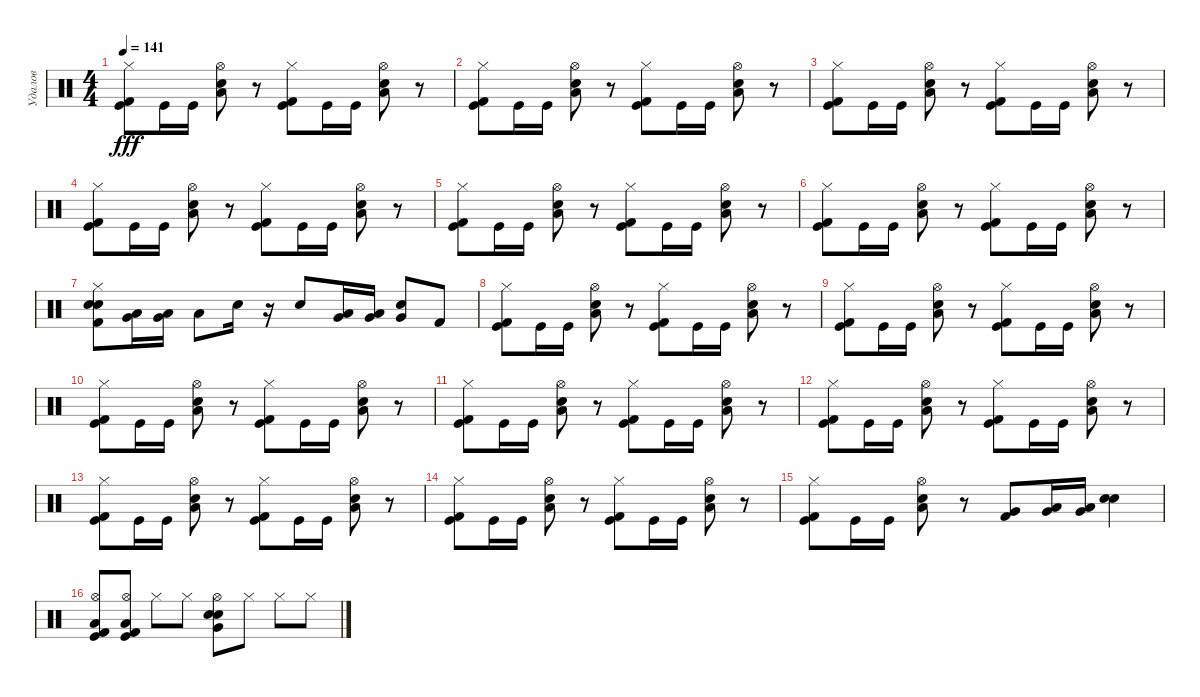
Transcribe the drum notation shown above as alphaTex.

\track ("Удалов" "Удалов") {instrument percussion}
\staff {score}
\articulation defaults
\ts (4 4)
\tempo 141
\clef neutral
\ks c
("Hi-Hat (closed)" "Kick (hit)" "Kick (hit) 2").8{dy fff} "Kick (hit)".16 "Kick (hit)".16 ("Hi-Hat (open)" "Low Tom (hit)" "Snare (hit) 2").8 r.8 ("Hi-Hat (closed)" "Kick (hit)" "Kick (hit) 2").8 "Kick (hit)".16 "Kick (hit)".16 ("Hi-Hat (open)" "Low Tom (hit)" "Snare (hit) 2").8 r.8 |
("Hi-Hat (closed)" "Kick (hit)" "Kick (hit) 2").8 "Kick (hit)".16 "Kick (hit)".16 ("Hi-Hat (open)" "Low Tom (hit)" "Snare (hit) 2").8 r.8 ("Hi-Hat (closed)" "Kick (hit)" "Kick (hit) 2").8 "Kick (hit)".16 "Kick (hit)".16 ("Hi-Hat (open)" "Low Tom (hit)" "Snare (hit) 2").8 r.8 |
("Hi-Hat (closed)" "Kick (hit)" "Kick (hit) 2").8 "Kick (hit)".16 "Kick (hit)".16 ("Hi-Hat (open)" "Low Tom (hit)" "Snare (hit) 2").8 r.8 ("Hi-Hat (closed)" "Kick (hit)" "Kick (hit) 2").8 "Kick (hit)".16 "Kick (hit)".16 ("Hi-Hat (open)" "Low Tom (hit)" "Snare (hit) 2").8 r.8 |
("Hi-Hat (closed)" "Kick (hit)" "Kick (hit) 2").8 "Kick (hit)".16 "Kick (hit)".16 ("Hi-Hat (open)" "Low Tom (hit)" "Snare (hit) 2").8 r.8 ("Hi-Hat (closed)" "Kick (hit)" "Kick (hit) 2").8 "Kick (hit)".16 "Kick (hit)".16 ("Hi-Hat (open)" "Low Tom (hit)" "Snare (hit) 2").8 r.8 |
("Hi-Hat (closed)" "Kick (hit)" "Kick (hit) 2").8 "Kick (hit)".16 "Kick (hit)".16 ("Hi-Hat (open)" "Low Tom (hit)" "Snare (hit) 2").8 r.8 ("Hi-Hat (closed)" "Kick (hit)" "Kick (hit) 2").8 "Kick (hit)".16 "Kick (hit)".16 ("Hi-Hat (open)" "Low Tom (hit)" "Snare (hit) 2").8 r.8 |
("Hi-Hat (closed)" "Kick (hit)" "Kick (hit) 2").8 "Kick (hit)".16 "Kick (hit)".16 ("Hi-Hat (open)" "Low Tom (hit)" "Snare (hit) 2").8 r.8 ("Hi-Hat (closed)" "Kick (hit)" "Kick (hit) 2").8 "Kick (hit)".16 "Kick (hit)".16 ("Hi-Hat (open)" "Low Tom (hit)" "Snare (hit) 2").8 r.8 |
("Hi-Hat (closed)" "Electric Snare (hit)" "Snare (hit) 2" "Kick (hit) 2").8 ("Low Tom (hit)" "Very Low Tom (hit)").16 ("Very Low Tom (hit)" "Low Floor Tom (hit)").16 "Low Tom (hit)".8 "Snare (hit) 2".16 r.16 "Snare (hit) 2".8 ("Low Tom (hit)" "Very Low Tom (hit)").16 ("Very Low Tom (hit)" "Low Floor Tom (hit)").16 ("Snare (hit) 2" "Very Low Tom (hit)").8 "Kick (hit) 2".8 |
("Hi-Hat (closed)" "Kick (hit)" "Kick (hit) 2").8 "Kick (hit)".16 "Kick (hit)".16 ("Hi-Hat (open)" "Low Tom (hit)" "Snare (hit) 2").8 r.8 ("Hi-Hat (closed)" "Kick (hit)" "Kick (hit) 2").8 "Kick (hit)".16 "Kick (hit)".16 ("Hi-Hat (open)" "Low Tom (hit)" "Snare (hit) 2").8 r.8 |
("Hi-Hat (closed)" "Kick (hit)" "Kick (hit) 2").8 "Kick (hit)".16 "Kick (hit)".16 ("Hi-Hat (open)" "Low Tom (hit)" "Snare (hit) 2").8 r.8 ("Hi-Hat (closed)" "Kick (hit)" "Kick (hit) 2").8 "Kick (hit)".16 "Kick (hit)".16 ("Hi-Hat (open)" "Low Tom (hit)" "Snare (hit) 2").8 r.8 |
("Hi-Hat (closed)" "Kick (hit)" "Kick (hit) 2").8 "Kick (hit)".16 "Kick (hit)".16 ("Hi-Hat (open)" "Low Tom (hit)" "Snare (hit) 2").8 r.8 ("Hi-Hat (closed)" "Kick (hit)" "Kick (hit) 2").8 "Kick (hit)".16 "Kick (hit)".16 ("Hi-Hat (open)" "Low Tom (hit)" "Snare (hit) 2").8 r.8 |
("Hi-Hat (closed)" "Kick (hit)" "Kick (hit) 2").8 "Kick (hit)".16 "Kick (hit)".16 ("Hi-Hat (open)" "Low Tom (hit)" "Snare (hit) 2").8 r.8 ("Hi-Hat (closed)" "Kick (hit)" "Kick (hit) 2").8 "Kick (hit)".16 "Kick (hit)".16 ("Hi-Hat (open)" "Low Tom (hit)" "Snare (hit) 2").8 r.8 |
("Hi-Hat (closed)" "Kick (hit)" "Kick (hit) 2").8 "Kick (hit)".16 "Kick (hit)".16 ("Hi-Hat (open)" "Low Tom (hit)" "Snare (hit) 2").8 r.8 ("Hi-Hat (closed)" "Kick (hit)" "Kick (hit) 2").8 "Kick (hit)".16 "Kick (hit)".16 ("Hi-Hat (open)" "Low Tom (hit)" "Snare (hit) 2").8 r.8 |
("Hi-Hat (closed)" "Kick (hit)" "Kick (hit) 2").8 "Kick (hit)".16 "Kick (hit)".16 ("Hi-Hat (open)" "Low Tom (hit)" "Snare (hit) 2").8 r.8 ("Hi-Hat (closed)" "Kick (hit)" "Kick (hit) 2").8 "Kick (hit)".16 "Kick (hit)".16 ("Hi-Hat (open)" "Low Tom (hit)" "Snare (hit) 2").8 r.8 |
("Hi-Hat (closed)" "Kick (hit)" "Kick (hit) 2").8 "Kick (hit)".16 "Kick (hit)".16 ("Hi-Hat (open)" "Low Tom (hit)" "Snare (hit) 2").8 r.8 ("Hi-Hat (closed)" "Kick (hit)" "Kick (hit) 2").8 "Kick (hit)".16 "Kick (hit)".16 ("Hi-Hat (open)" "Low Tom (hit)" "Snare (hit) 2").8 r.8 |
("Hi-Hat (closed)" "Kick (hit) 2" "Kick (hit)").8 "Kick (hit)".16 "Kick (hit)".16 ("Hi-Hat (open)" "Low Tom (hit)" "Snare (hit) 2").8 r.8 ("Very Low Tom (hit)" "Kick (hit) 2").8 ("Low Floor Tom (hit)" "Very Low Tom (hit)").16 ("Very Low Tom (hit)" "Low Tom (hit)").16 ("Electric Snare (hit)" "Snare (hit) 2").4 |
("Hi-Hat (open)" "Low Floor Tom (hit)" "Kick (hit)" "Kick (hit) 2").8 ("Hi-Hat (open)" "Low Floor Tom (hit)" "Kick (hit)" "Kick (hit) 2").8 "Hi-Hat (closed)".8 "Hi-Hat (closed)".8 ("Hi-Hat (open)" "Very Low Tom (hit)" "Snare (hit) 2" "Electric Snare (hit)").8 "Hi-Hat (closed)".8 "Hi-Hat (closed)".8 "Hi-Hat (closed)".8
